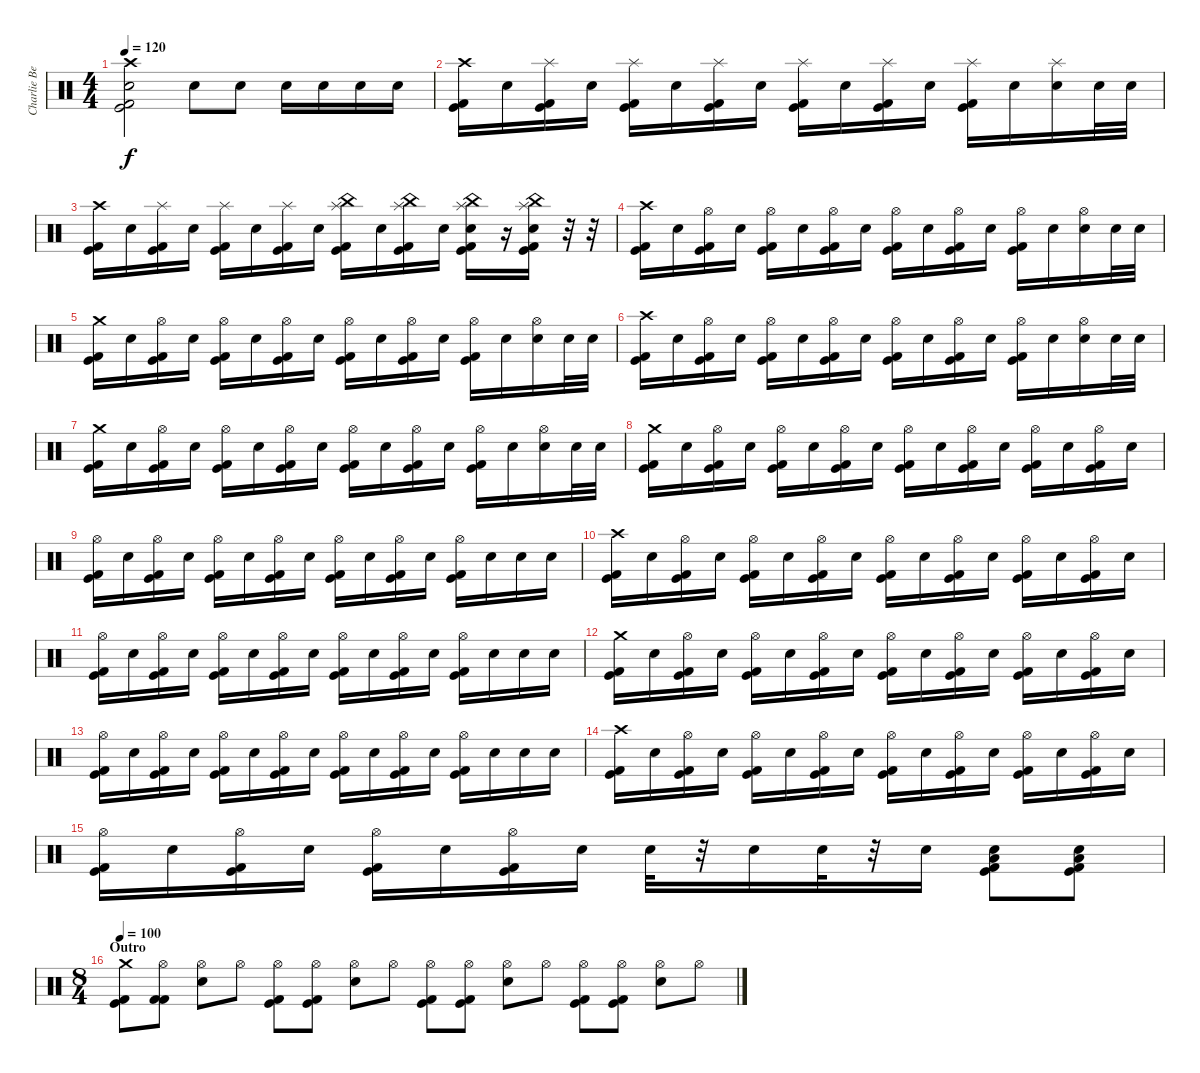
\track ("Charlie Benante" "Charlie Be") {instrument percussion}
\staff {score}
\articulation defaults
\ts (4 4)
\tempo 120
\clef neutral
\ks c
("Crash high (hit)" "Electric Snare (hit)" "Kick (hit) 2" "Kick (hit)").2{dy f} "Electric Snare (hit)".8 "Electric Snare (hit)".8 "Electric Snare (hit)".16 "Electric Snare (hit)".16 "Electric Snare (hit)".16 "Electric Snare (hit)".16 |
("Crash high (hit)" "Kick (hit) 2" "Kick (hit)").16 "Electric Snare (hit)".16 ("Splash (hit)" "Kick (hit) 2" "Kick (hit)").16 "Electric Snare (hit)".16 ("Splash (hit)" "Kick (hit) 2" "Kick (hit)").16 "Electric Snare (hit)".16 ("Splash (hit)" "Kick (hit) 2" "Kick (hit)").16 "Electric Snare (hit)".16 ("Splash (hit)" "Kick (hit) 2" "Kick (hit)").16 "Electric Snare (hit)".16 ("Splash (hit)" "Kick (hit) 2" "Kick (hit)").16 "Electric Snare (hit)".16 ("Splash (hit)" "Kick (hit) 2" "Kick (hit)").16 "Electric Snare (hit)".16 ("Splash (hit)" "Electric Snare (hit)").16 "Electric Snare (hit)".32 "Electric Snare (hit)".32 |
("Crash high (hit)" "Kick (hit) 2" "Kick (hit)").16 "Electric Snare (hit)".16 ("Splash (hit)" "Kick (hit) 2" "Kick (hit)").16 "Electric Snare (hit)".16 ("Splash (hit)" "Kick (hit) 2" "Kick (hit)").16 "Electric Snare (hit)".16 ("Splash (hit)" "Kick (hit) 2" "Kick (hit)").16 "Electric Snare (hit)".16 ("China (hit)" "Splash (hit)" "Kick (hit) 2" "Kick (hit)").16 "Electric Snare (hit)".16 ("China (hit)" "Splash (hit)" "Kick (hit) 2" "Kick (hit)").16 "Electric Snare (hit)".16 ("China (hit)" "Splash (hit)" "Electric Snare (hit)" "Kick (hit) 2" "Kick (hit)").16 r.16 ("China (hit)" "Splash (hit)" "Electric Snare (hit)" "Kick (hit) 2" "Kick (hit)").16 r.32 r.32 |
("Crash high (hit)" "Kick (hit) 2" "Kick (hit)").16 "Electric Snare (hit)".16 ("Hi-Hat (open)" "Kick (hit) 2" "Kick (hit)").16 "Electric Snare (hit)".16 ("Hi-Hat (open)" "Kick (hit) 2" "Kick (hit)").16 "Electric Snare (hit)".16 ("Hi-Hat (open)" "Kick (hit) 2" "Kick (hit)").16 "Electric Snare (hit)".16 ("Hi-Hat (open)" "Kick (hit) 2" "Kick (hit)").16 "Electric Snare (hit)".16 ("Hi-Hat (open)" "Kick (hit) 2" "Kick (hit)").16 "Electric Snare (hit)".16 ("Hi-Hat (open)" "Kick (hit) 2" "Kick (hit)").16 "Electric Snare (hit)".16 ("Hi-Hat (open)" "Electric Snare (hit)").16 "Electric Snare (hit)".32 "Electric Snare (hit)".32 |
("Crash medium (hit)" "Kick (hit) 2" "Kick (hit)").16 "Electric Snare (hit)".16 ("Hi-Hat (open)" "Kick (hit) 2" "Kick (hit)").16 "Electric Snare (hit)".16 ("Hi-Hat (open)" "Kick (hit) 2" "Kick (hit)").16 "Electric Snare (hit)".16 ("Hi-Hat (open)" "Kick (hit) 2" "Kick (hit)").16 "Electric Snare (hit)".16 ("Hi-Hat (open)" "Kick (hit) 2" "Kick (hit)").16 "Electric Snare (hit)".16 ("Hi-Hat (open)" "Kick (hit) 2" "Kick (hit)").16 "Electric Snare (hit)".16 ("Hi-Hat (open)" "Kick (hit) 2" "Kick (hit)").16 "Electric Snare (hit)".16 ("Hi-Hat (open)" "Electric Snare (hit)").16 "Electric Snare (hit)".32 "Electric Snare (hit)".32 |
("Crash high (hit)" "Kick (hit) 2" "Kick (hit)").16 "Electric Snare (hit)".16 ("Hi-Hat (open)" "Kick (hit) 2" "Kick (hit)").16 "Electric Snare (hit)".16 ("Hi-Hat (open)" "Kick (hit) 2" "Kick (hit)").16 "Electric Snare (hit)".16 ("Hi-Hat (open)" "Kick (hit) 2" "Kick (hit)").16 "Electric Snare (hit)".16 ("Hi-Hat (open)" "Kick (hit) 2" "Kick (hit)").16 "Electric Snare (hit)".16 ("Hi-Hat (open)" "Kick (hit) 2" "Kick (hit)").16 "Electric Snare (hit)".16 ("Hi-Hat (open)" "Kick (hit) 2" "Kick (hit)").16 "Electric Snare (hit)".16 ("Hi-Hat (open)" "Electric Snare (hit)").16 "Electric Snare (hit)".32 "Electric Snare (hit)".32 |
("Crash medium (hit)" "Kick (hit) 2" "Kick (hit)").16 "Electric Snare (hit)".16 ("Hi-Hat (open)" "Kick (hit) 2" "Kick (hit)").16 "Electric Snare (hit)".16 ("Hi-Hat (open)" "Kick (hit) 2" "Kick (hit)").16 "Electric Snare (hit)".16 ("Hi-Hat (open)" "Kick (hit) 2" "Kick (hit)").16 "Electric Snare (hit)".16 ("Hi-Hat (open)" "Kick (hit) 2" "Kick (hit)").16 "Electric Snare (hit)".16 ("Hi-Hat (open)" "Kick (hit) 2" "Kick (hit)").16 "Electric Snare (hit)".16 ("Hi-Hat (open)" "Kick (hit) 2" "Kick (hit)").16 "Electric Snare (hit)".16 ("Hi-Hat (open)" "Electric Snare (hit)").16 "Electric Snare (hit)".32 "Electric Snare (hit)".32 |
("Crash medium (hit)" "Kick (hit) 2" "Kick (hit)").16 "Electric Snare (hit)".16 ("Hi-Hat (open)" "Kick (hit) 2" "Kick (hit)").16 "Electric Snare (hit)".16 ("Hi-Hat (open)" "Kick (hit) 2" "Kick (hit)").16 "Electric Snare (hit)".16 ("Hi-Hat (open)" "Kick (hit) 2" "Kick (hit)").16 "Electric Snare (hit)".16 ("Hi-Hat (open)" "Kick (hit) 2" "Kick (hit)").16 "Electric Snare (hit)".16 ("Hi-Hat (open)" "Kick (hit) 2" "Kick (hit)").16 "Electric Snare (hit)".16 ("Hi-Hat (open)" "Kick (hit) 2" "Kick (hit)").16 "Electric Snare (hit)".16 ("Hi-Hat (open)" "Kick (hit) 2" "Kick (hit)").16 "Electric Snare (hit)".16 |
("Hi-Hat (open)" "Kick (hit) 2" "Kick (hit)").16 "Electric Snare (hit)".16 ("Hi-Hat (open)" "Kick (hit) 2" "Kick (hit)").16 "Electric Snare (hit)".16 ("Hi-Hat (open)" "Kick (hit) 2" "Kick (hit)").16 "Electric Snare (hit)".16 ("Hi-Hat (open)" "Kick (hit) 2" "Kick (hit)").16 "Electric Snare (hit)".16 ("Hi-Hat (open)" "Kick (hit) 2" "Kick (hit)").16 "Electric Snare (hit)".16 ("Hi-Hat (open)" "Kick (hit) 2" "Kick (hit)").16 "Electric Snare (hit)".16 ("Hi-Hat (open)" "Kick (hit) 2" "Kick (hit)").16 "Electric Snare (hit)".16 "Electric Snare (hit)".16 "Electric Snare (hit)".16 |
("Crash high (hit)" "Kick (hit) 2" "Kick (hit)").16 "Electric Snare (hit)".16 ("Hi-Hat (open)" "Kick (hit) 2" "Kick (hit)").16 "Electric Snare (hit)".16 ("Hi-Hat (open)" "Kick (hit) 2" "Kick (hit)").16 "Electric Snare (hit)".16 ("Hi-Hat (open)" "Kick (hit) 2" "Kick (hit)").16 "Electric Snare (hit)".16 ("Hi-Hat (open)" "Kick (hit) 2" "Kick (hit)").16 "Electric Snare (hit)".16 ("Hi-Hat (open)" "Kick (hit) 2" "Kick (hit)").16 "Electric Snare (hit)".16 ("Hi-Hat (open)" "Kick (hit) 2" "Kick (hit)").16 "Electric Snare (hit)".16 ("Hi-Hat (open)" "Kick (hit) 2" "Kick (hit)").16 "Electric Snare (hit)".16 |
("Hi-Hat (open)" "Kick (hit) 2" "Kick (hit)").16 "Electric Snare (hit)".16 ("Hi-Hat (open)" "Kick (hit) 2" "Kick (hit)").16 "Electric Snare (hit)".16 ("Hi-Hat (open)" "Kick (hit) 2" "Kick (hit)").16 "Electric Snare (hit)".16 ("Hi-Hat (open)" "Kick (hit) 2" "Kick (hit)").16 "Electric Snare (hit)".16 ("Hi-Hat (open)" "Kick (hit) 2" "Kick (hit)").16 "Electric Snare (hit)".16 ("Hi-Hat (open)" "Kick (hit) 2" "Kick (hit)").16 "Electric Snare (hit)".16 ("Hi-Hat (open)" "Kick (hit) 2" "Kick (hit)").16 "Electric Snare (hit)".16 "Electric Snare (hit)".16 "Electric Snare (hit)".16 |
("Crash medium (hit)" "Kick (hit) 2" "Kick (hit)").16 "Electric Snare (hit)".16 ("Hi-Hat (open)" "Kick (hit) 2" "Kick (hit)").16 "Electric Snare (hit)".16 ("Hi-Hat (open)" "Kick (hit) 2" "Kick (hit)").16 "Electric Snare (hit)".16 ("Hi-Hat (open)" "Kick (hit) 2" "Kick (hit)").16 "Electric Snare (hit)".16 ("Hi-Hat (open)" "Kick (hit) 2" "Kick (hit)").16 "Electric Snare (hit)".16 ("Hi-Hat (open)" "Kick (hit) 2" "Kick (hit)").16 "Electric Snare (hit)".16 ("Hi-Hat (open)" "Kick (hit) 2" "Kick (hit)").16 "Electric Snare (hit)".16 ("Hi-Hat (open)" "Kick (hit) 2" "Kick (hit)").16 "Electric Snare (hit)".16 |
("Hi-Hat (open)" "Kick (hit) 2" "Kick (hit)").16 "Electric Snare (hit)".16 ("Hi-Hat (open)" "Kick (hit) 2" "Kick (hit)").16 "Electric Snare (hit)".16 ("Hi-Hat (open)" "Kick (hit) 2" "Kick (hit)").16 "Electric Snare (hit)".16 ("Hi-Hat (open)" "Kick (hit) 2" "Kick (hit)").16 "Electric Snare (hit)".16 ("Hi-Hat (open)" "Kick (hit) 2" "Kick (hit)").16 "Electric Snare (hit)".16 ("Hi-Hat (open)" "Kick (hit) 2" "Kick (hit)").16 "Electric Snare (hit)".16 ("Hi-Hat (open)" "Kick (hit) 2" "Kick (hit)").16 "Electric Snare (hit)".16 "Electric Snare (hit)".16 "Electric Snare (hit)".16 |
("Crash high (hit)" "Kick (hit) 2" "Kick (hit)").16 "Electric Snare (hit)".16 ("Hi-Hat (open)" "Kick (hit) 2" "Kick (hit)").16 "Electric Snare (hit)".16 ("Hi-Hat (open)" "Kick (hit) 2" "Kick (hit)").16 "Electric Snare (hit)".16 ("Hi-Hat (open)" "Kick (hit) 2" "Kick (hit)").16 "Electric Snare (hit)".16 ("Hi-Hat (open)" "Kick (hit) 2" "Kick (hit)").16 "Electric Snare (hit)".16 ("Hi-Hat (open)" "Kick (hit) 2" "Kick (hit)").16 "Electric Snare (hit)".16 ("Hi-Hat (open)" "Kick (hit) 2" "Kick (hit)").16 "Electric Snare (hit)".16 ("Hi-Hat (open)" "Kick (hit) 2" "Kick (hit)").16 "Electric Snare (hit)".16 |
("Hi-Hat (open)" "Kick (hit) 2" "Kick (hit)").16 "Electric Snare (hit)".16 ("Hi-Hat (open)" "Kick (hit) 2" "Kick (hit)").16 "Electric Snare (hit)".16 ("Hi-Hat (open)" "Kick (hit) 2" "Kick (hit)").16 "Electric Snare (hit)".16 ("Hi-Hat (open)" "Kick (hit) 2" "Kick (hit)").16 "Electric Snare (hit)".16 "Electric Snare (hit)".32 r.32 "Electric Snare (hit)".16 "Electric Snare (hit)".32 r.32 "Electric Snare (hit)".16 ("Low Floor Tom (hit)" "Electric Snare (hit)" "Kick (hit) 2" "Kick (hit)").8 ("Low Floor Tom (hit)" "Electric Snare (hit)" "Kick (hit) 2" "Kick (hit)").8 |
\ts (8 4)
\section ("" "Outro")
\tempo 100
("Crash medium (hit)" "Kick (hit)" "Kick (hit) 2").8 ("Hi-Hat (open)" "Kick (hit) 2" "Kick (hit) 2").8 ("Hi-Hat (open)" "Electric Snare (hit)").8 "Hi-Hat (open)".8 ("Hi-Hat (open)" "Kick (hit)" "Kick (hit) 2").8 ("Hi-Hat (open)" "Kick (hit)" "Kick (hit) 2").8 ("Hi-Hat (open)" "Electric Snare (hit)").8 "Hi-Hat (open)".8 ("Hi-Hat (open)" "Kick (hit)" "Kick (hit) 2").8 ("Hi-Hat (open)" "Kick (hit)" "Kick (hit) 2").8 ("Hi-Hat (open)" "Electric Snare (hit)").8 "Hi-Hat (open)".8 ("Hi-Hat (open)" "Kick (hit)" "Kick (hit) 2").8 ("Hi-Hat (open)" "Kick (hit)" "Kick (hit) 2").8 ("Hi-Hat (open)" "Electric Snare (hit)").8 "Hi-Hat (open)".8
